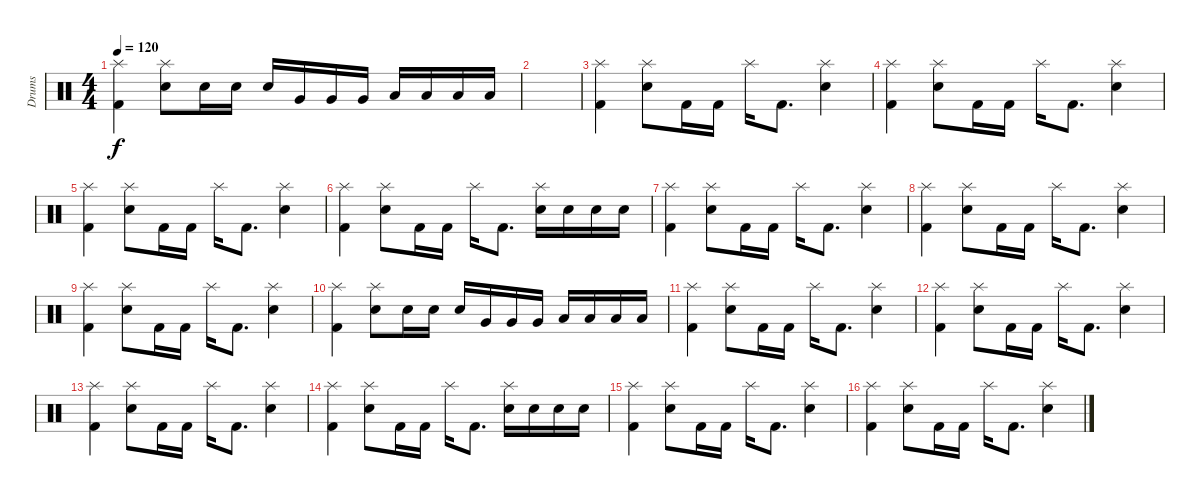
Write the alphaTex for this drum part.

\track ("Drums" "Drums") {instrument percussion}
\staff {score}
\articulation defaults
\ts (4 4)
\tempo 120
\clef neutral
\ks c
("Splash (hit)" "Kick (hit) 2").4{dy f} ("Splash (hit)" "Electric Snare (hit)").8 "Electric Snare (hit)".16 "Electric Snare (hit)".16 "Electric Snare (hit)".16 "Very Low Tom (hit)".16 "Very Low Tom (hit)".16 "Very Low Tom (hit)".16 "Low Tom (hit)".16 "Low Tom (hit)".16 "Low Tom (hit)".16 "Low Tom (hit)".16 |
|
("Splash (hit)" "Kick (hit) 2").4 ("Splash (hit)" "Electric Snare (hit)").8 "Kick (hit) 2".16 "Kick (hit) 2".16 "Splash (hit)".16 "Kick (hit) 2".8{d} ("Splash (hit)" "Electric Snare (hit)").4 |
("Splash (hit)" "Kick (hit) 2").4 ("Splash (hit)" "Electric Snare (hit)").8 "Kick (hit) 2".16 "Kick (hit) 2".16 "Splash (hit)".16 "Kick (hit) 2".8{d} ("Splash (hit)" "Electric Snare (hit)").4 |
("Splash (hit)" "Kick (hit) 2").4 ("Splash (hit)" "Electric Snare (hit)").8 "Kick (hit) 2".16 "Kick (hit) 2".16 "Splash (hit)".16 "Kick (hit) 2".8{d} ("Splash (hit)" "Electric Snare (hit)").4 |
("Splash (hit)" "Kick (hit) 2").4 ("Splash (hit)" "Electric Snare (hit)").8 "Kick (hit) 2".16 "Kick (hit) 2".16 "Splash (hit)".16 "Kick (hit) 2".8{d} ("Splash (hit)" "Electric Snare (hit)").16 "Electric Snare (hit)".16 "Electric Snare (hit)".16 "Electric Snare (hit)".16 |
("Splash (hit)" "Kick (hit) 2").4 ("Splash (hit)" "Electric Snare (hit)").8 "Kick (hit) 2".16 "Kick (hit) 2".16 "Splash (hit)".16 "Kick (hit) 2".8{d} ("Splash (hit)" "Electric Snare (hit)").4 |
("Splash (hit)" "Kick (hit) 2").4 ("Splash (hit)" "Electric Snare (hit)").8 "Kick (hit) 2".16 "Kick (hit) 2".16 "Splash (hit)".16 "Kick (hit) 2".8{d} ("Splash (hit)" "Electric Snare (hit)").4 |
("Splash (hit)" "Kick (hit) 2").4 ("Splash (hit)" "Electric Snare (hit)").8 "Kick (hit) 2".16 "Kick (hit) 2".16 "Splash (hit)".16 "Kick (hit) 2".8{d} ("Splash (hit)" "Electric Snare (hit)").4 |
("Splash (hit)" "Kick (hit) 2").4 ("Splash (hit)" "Electric Snare (hit)").8 "Electric Snare (hit)".16 "Electric Snare (hit)".16 "Electric Snare (hit)".16 "Very Low Tom (hit)".16 "Very Low Tom (hit)".16 "Very Low Tom (hit)".16 "Low Tom (hit)".16 "Low Tom (hit)".16 "Low Tom (hit)".16 "Low Tom (hit)".16 |
("Splash (hit)" "Kick (hit) 2").4 ("Splash (hit)" "Electric Snare (hit)").8 "Kick (hit) 2".16 "Kick (hit) 2".16 "Splash (hit)".16 "Kick (hit) 2".8{d} ("Splash (hit)" "Electric Snare (hit)").4 |
("Splash (hit)" "Kick (hit) 2").4 ("Splash (hit)" "Electric Snare (hit)").8 "Kick (hit) 2".16 "Kick (hit) 2".16 "Splash (hit)".16 "Kick (hit) 2".8{d} ("Splash (hit)" "Electric Snare (hit)").4 |
("Splash (hit)" "Kick (hit) 2").4 ("Splash (hit)" "Electric Snare (hit)").8 "Kick (hit) 2".16 "Kick (hit) 2".16 "Splash (hit)".16 "Kick (hit) 2".8{d} ("Splash (hit)" "Electric Snare (hit)").4 |
("Splash (hit)" "Kick (hit) 2").4 ("Splash (hit)" "Electric Snare (hit)").8 "Kick (hit) 2".16 "Kick (hit) 2".16 "Splash (hit)".16 "Kick (hit) 2".8{d} ("Splash (hit)" "Electric Snare (hit)").16 "Electric Snare (hit)".16 "Electric Snare (hit)".16 "Electric Snare (hit)".16 |
("Splash (hit)" "Kick (hit) 2").4 ("Splash (hit)" "Electric Snare (hit)").8 "Kick (hit) 2".16 "Kick (hit) 2".16 "Splash (hit)".16 "Kick (hit) 2".8{d} ("Splash (hit)" "Electric Snare (hit)").4 |
("Splash (hit)" "Kick (hit) 2").4 ("Splash (hit)" "Electric Snare (hit)").8 "Kick (hit) 2".16 "Kick (hit) 2".16 "Splash (hit)".16 "Kick (hit) 2".8{d} ("Splash (hit)" "Electric Snare (hit)").4
